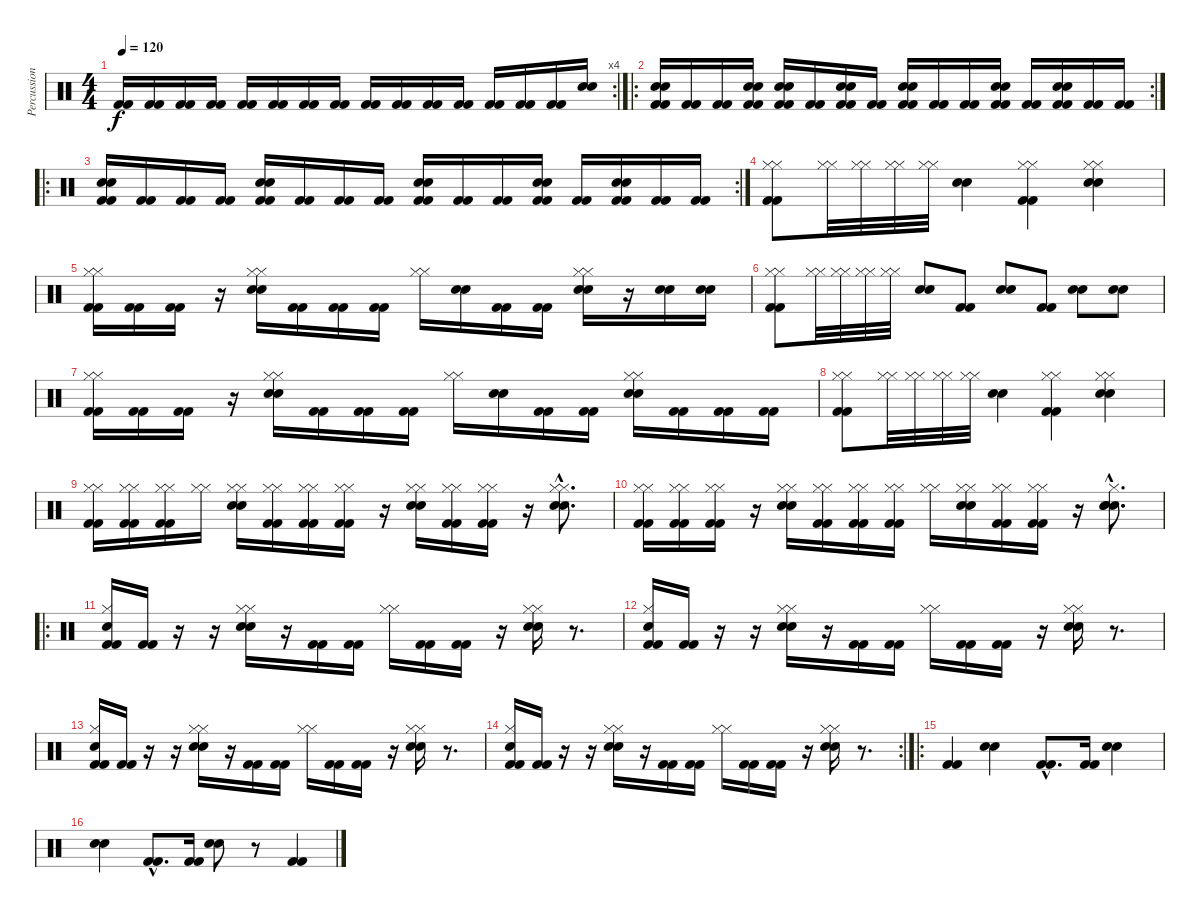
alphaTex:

\track ("Percussions" "Percussion") {instrument percussion}
\staff {score}
\articulation defaults
\rc 4
\ts (4 4)
\tempo 120
\clef neutral
\ks c
("Kick (hit) 2" "Kick (hit) 2").16{dy f} ("Kick (hit) 2" "Kick (hit) 2").16 ("Kick (hit) 2" "Kick (hit) 2").16 ("Kick (hit) 2" "Kick (hit) 2").16 ("Kick (hit) 2" "Kick (hit) 2").16 ("Kick (hit) 2" "Kick (hit) 2").16 ("Kick (hit) 2" "Kick (hit) 2").16 ("Kick (hit) 2" "Kick (hit) 2").16 ("Kick (hit) 2" "Kick (hit) 2").16 ("Kick (hit) 2" "Kick (hit) 2").16 ("Kick (hit) 2" "Kick (hit) 2").16 ("Kick (hit) 2" "Kick (hit) 2").16 ("Kick (hit) 2" "Kick (hit) 2").16 ("Kick (hit) 2" "Kick (hit) 2").16 ("Kick (hit) 2" "Kick (hit) 2").16 ("Electric Snare (hit)" "Electric Snare (hit)").16 |
\ro
\rc 2
("Kick (hit) 2" "Kick (hit) 2" "Electric Snare (hit)" "Electric Snare (hit)").16 ("Kick (hit) 2" "Kick (hit) 2").16 ("Kick (hit) 2" "Kick (hit) 2").16 ("Kick (hit) 2" "Kick (hit) 2" "Electric Snare (hit)" "Electric Snare (hit)").16 ("Kick (hit) 2" "Kick (hit) 2" "Electric Snare (hit)" "Electric Snare (hit)").16 ("Kick (hit) 2" "Kick (hit) 2").16 ("Kick (hit) 2" "Kick (hit) 2" "Electric Snare (hit)" "Electric Snare (hit)").16 ("Kick (hit) 2" "Kick (hit) 2").16 ("Kick (hit) 2" "Kick (hit) 2" "Electric Snare (hit)" "Electric Snare (hit)").16 ("Kick (hit) 2" "Kick (hit) 2").16 ("Kick (hit) 2" "Kick (hit) 2").16 ("Kick (hit) 2" "Kick (hit) 2" "Electric Snare (hit)" "Electric Snare (hit)").16 ("Kick (hit) 2" "Kick (hit) 2").16 ("Kick (hit) 2" "Kick (hit) 2" "Electric Snare (hit)" "Electric Snare (hit)").16 ("Kick (hit) 2" "Kick (hit) 2").16 ("Kick (hit) 2" "Kick (hit) 2").16 |
\ro
\rc 2
("Kick (hit) 2" "Kick (hit) 2" "Electric Snare (hit)" "Electric Snare (hit)").16 ("Kick (hit) 2" "Kick (hit) 2").16 ("Kick (hit) 2" "Kick (hit) 2").16 ("Kick (hit) 2" "Kick (hit) 2").16 ("Kick (hit) 2" "Kick (hit) 2" "Electric Snare (hit)" "Electric Snare (hit)").16 ("Kick (hit) 2" "Kick (hit) 2").16 ("Kick (hit) 2" "Kick (hit) 2").16 ("Kick (hit) 2" "Kick (hit) 2").16 ("Kick (hit) 2" "Kick (hit) 2" "Electric Snare (hit)" "Electric Snare (hit)").16 ("Kick (hit) 2" "Kick (hit) 2").16 ("Kick (hit) 2" "Kick (hit) 2").16 ("Kick (hit) 2" "Kick (hit) 2" "Electric Snare (hit)" "Electric Snare (hit)").16 ("Kick (hit) 2" "Kick (hit) 2").16 ("Kick (hit) 2" "Kick (hit) 2" "Electric Snare (hit)" "Electric Snare (hit)").16 ("Kick (hit) 2" "Kick (hit) 2").16 ("Kick (hit) 2" "Kick (hit) 2").16 |
("Kick (hit) 2" "Kick (hit) 2" "Hi-Hat (closed)" "Hi-Hat (closed)").8 ("Hi-Hat (closed)" "Hi-Hat (closed)").32 ("Hi-Hat (closed)" "Hi-Hat (closed)").32 ("Hi-Hat (closed)" "Hi-Hat (closed)").32 ("Hi-Hat (closed)" "Hi-Hat (closed)").32 ("Electric Snare (hit)" "Electric Snare (hit)").4 ("Kick (hit) 2" "Kick (hit) 2" "Hi-Hat (closed)" "Hi-Hat (closed)").4 ("Electric Snare (hit)" "Electric Snare (hit)" "Hi-Hat (closed)" "Hi-Hat (closed)").4 |
("Kick (hit) 2" "Kick (hit) 2" "Hi-Hat (closed)" "Hi-Hat (closed)").16 ("Kick (hit) 2" "Kick (hit) 2").16 ("Kick (hit) 2" "Kick (hit) 2").16 r.16 ("Electric Snare (hit)" "Electric Snare (hit)" "Hi-Hat (closed)" "Hi-Hat (closed)").16 ("Kick (hit) 2" "Kick (hit) 2").16 ("Kick (hit) 2" "Kick (hit) 2").16 ("Kick (hit) 2" "Kick (hit) 2").16 ("Hi-Hat (closed)" "Hi-Hat (closed)").16 ("Electric Snare (hit)" "Electric Snare (hit)").16 ("Kick (hit) 2" "Kick (hit) 2").16 ("Kick (hit) 2" "Kick (hit) 2").16 ("Electric Snare (hit)" "Electric Snare (hit)" "Hi-Hat (closed)" "Hi-Hat (closed)").16 r.16 ("Electric Snare (hit)" "Electric Snare (hit)").16 ("Electric Snare (hit)" "Electric Snare (hit)").16 |
("Kick (hit) 2" "Kick (hit) 2" "Hi-Hat (closed)" "Hi-Hat (closed)").8 ("Hi-Hat (closed)" "Hi-Hat (closed)").32 ("Hi-Hat (closed)" "Hi-Hat (closed)").32 ("Hi-Hat (closed)" "Hi-Hat (closed)").32 ("Hi-Hat (closed)" "Hi-Hat (closed)").32 ("Electric Snare (hit)" "Electric Snare (hit)").8 ("Kick (hit) 2" "Kick (hit) 2").8 ("Electric Snare (hit)" "Electric Snare (hit)").8 ("Kick (hit) 2" "Kick (hit) 2").8 ("Electric Snare (hit)" "Electric Snare (hit)").8 ("Electric Snare (hit)" "Electric Snare (hit)").8 |
("Kick (hit) 2" "Kick (hit) 2" "Hi-Hat (closed)" "Hi-Hat (closed)").16 ("Kick (hit) 2" "Kick (hit) 2").16 ("Kick (hit) 2" "Kick (hit) 2").16 r.16 ("Electric Snare (hit)" "Electric Snare (hit)" "Hi-Hat (closed)" "Hi-Hat (closed)").16 ("Kick (hit) 2" "Kick (hit) 2").16 ("Kick (hit) 2" "Kick (hit) 2").16 ("Kick (hit) 2" "Kick (hit) 2").16 ("Hi-Hat (closed)" "Hi-Hat (closed)").16 ("Electric Snare (hit)" "Electric Snare (hit)").16 ("Kick (hit) 2" "Kick (hit) 2").16 ("Kick (hit) 2" "Kick (hit) 2").16 ("Electric Snare (hit)" "Electric Snare (hit)" "Hi-Hat (closed)" "Hi-Hat (closed)").16 ("Kick (hit) 2" "Kick (hit) 2").16 ("Kick (hit) 2" "Kick (hit) 2").16 ("Kick (hit) 2" "Kick (hit) 2").16 |
("Kick (hit) 2" "Kick (hit) 2" "Hi-Hat (closed)" "Hi-Hat (closed)").8 ("Hi-Hat (closed)" "Hi-Hat (closed)").32 ("Hi-Hat (closed)" "Hi-Hat (closed)").32 ("Hi-Hat (closed)" "Hi-Hat (closed)").32 ("Hi-Hat (closed)" "Hi-Hat (closed)").32 ("Electric Snare (hit)" "Electric Snare (hit)").4 ("Kick (hit) 2" "Kick (hit) 2" "Hi-Hat (closed)" "Hi-Hat (closed)").4 ("Electric Snare (hit)" "Electric Snare (hit)" "Hi-Hat (closed)" "Hi-Hat (closed)").4 |
("Kick (hit) 2" "Kick (hit) 2" "Hi-Hat (closed)" "Hi-Hat (closed)").16 ("Kick (hit) 2" "Kick (hit) 2" "Hi-Hat (closed)" "Hi-Hat (closed)").16 ("Kick (hit) 2" "Kick (hit) 2" "Hi-Hat (closed)" "Hi-Hat (closed)").16 ("Hi-Hat (closed)" "Hi-Hat (closed)").16 ("Electric Snare (hit)" "Electric Snare (hit)" "Hi-Hat (closed)" "Hi-Hat (closed)").16 ("Kick (hit) 2" "Kick (hit) 2" "Hi-Hat (closed)" "Hi-Hat (closed)").16 ("Kick (hit) 2" "Kick (hit) 2" "Hi-Hat (closed)" "Hi-Hat (closed)").16 ("Kick (hit) 2" "Kick (hit) 2" "Hi-Hat (closed)" "Hi-Hat (closed)").16 r.16 ("Electric Snare (hit)" "Electric Snare (hit)" "Hi-Hat (closed)" "Hi-Hat (closed)").16 ("Kick (hit) 2" "Kick (hit) 2" "Hi-Hat (closed)" "Hi-Hat (closed)").16 ("Kick (hit) 2" "Kick (hit) 2" "Hi-Hat (closed)" "Hi-Hat (closed)").16 r.16 ("Electric Snare (hit)"{hac} "Electric Snare (hit)"{hac} "Hi-Hat (closed)"{hac} "Hi-Hat (closed)"{hac}).8{d} |
("Kick (hit) 2" "Kick (hit) 2" "Hi-Hat (closed)" "Hi-Hat (closed)").16 ("Kick (hit) 2" "Kick (hit) 2" "Hi-Hat (closed)" "Hi-Hat (closed)").16 ("Kick (hit) 2" "Kick (hit) 2" "Hi-Hat (closed)" "Hi-Hat (closed)").16 r.16 ("Electric Snare (hit)" "Electric Snare (hit)" "Hi-Hat (closed)" "Hi-Hat (closed)").16 ("Kick (hit) 2" "Kick (hit) 2" "Hi-Hat (closed)" "Hi-Hat (closed)").16 ("Kick (hit) 2" "Kick (hit) 2" "Hi-Hat (closed)" "Hi-Hat (closed)").16 ("Kick (hit) 2" "Kick (hit) 2" "Hi-Hat (closed)" "Hi-Hat (closed)").16 ("Hi-Hat (closed)" "Hi-Hat (closed)").16 ("Electric Snare (hit)" "Electric Snare (hit)" "Hi-Hat (closed)" "Hi-Hat (closed)").16 ("Kick (hit) 2" "Kick (hit) 2" "Hi-Hat (closed)" "Hi-Hat (closed)").16 ("Kick (hit) 2" "Kick (hit) 2" "Hi-Hat (closed)" "Hi-Hat (closed)").16 r.16 ("Electric Snare (hit)"{hac} "Electric Snare (hit)"{hac} "Hi-Hat (closed)"{hac} "Snare (hit)"{hac}).8{d} |
\ro
("Kick (hit) 2" "Kick (hit) 2" "Snare (hit)" "Hi-Hat (closed)").16 ("Kick (hit) 2" "Kick (hit) 2").16 r.16 r.16 ("Electric Snare (hit)" "Electric Snare (hit)" "Hi-Hat (closed)" "Hi-Hat (closed)").16 r.16 ("Kick (hit) 2" "Kick (hit) 2").16 ("Kick (hit) 2" "Kick (hit) 2").16 ("Hi-Hat (closed)" "Hi-Hat (closed)").16 ("Kick (hit) 2" "Kick (hit) 2").16 ("Kick (hit) 2" "Kick (hit) 2").16 r.16 ("Electric Snare (hit)" "Electric Snare (hit)" "Hi-Hat (closed)" "Hi-Hat (closed)").16 r.8{d} |
("Kick (hit) 2" "Kick (hit) 2" "Snare (hit)" "Hi-Hat (closed)").16 ("Kick (hit) 2" "Kick (hit) 2").16 r.16 r.16 ("Electric Snare (hit)" "Electric Snare (hit)" "Hi-Hat (closed)" "Hi-Hat (closed)").16 r.16 ("Kick (hit) 2" "Kick (hit) 2").16 ("Kick (hit) 2" "Kick (hit) 2").16 ("Hi-Hat (closed)" "Hi-Hat (closed)").16 ("Kick (hit) 2" "Kick (hit) 2").16 ("Kick (hit) 2" "Kick (hit) 2").16 r.16 ("Electric Snare (hit)" "Electric Snare (hit)" "Hi-Hat (closed)" "Hi-Hat (closed)").16 r.8{d} |
("Kick (hit) 2" "Kick (hit) 2" "Snare (hit)" "Hi-Hat (closed)").16 ("Kick (hit) 2" "Kick (hit) 2").16 r.16 r.16 ("Electric Snare (hit)" "Electric Snare (hit)" "Hi-Hat (closed)" "Hi-Hat (closed)").16 r.16 ("Kick (hit) 2" "Kick (hit) 2").16 ("Kick (hit) 2" "Kick (hit) 2").16 ("Hi-Hat (closed)" "Hi-Hat (closed)").16 ("Kick (hit) 2" "Kick (hit) 2").16 ("Kick (hit) 2" "Kick (hit) 2").16 r.16 ("Electric Snare (hit)" "Electric Snare (hit)" "Hi-Hat (closed)" "Hi-Hat (closed)").16 r.8{d} |
\rc 2
("Kick (hit) 2" "Kick (hit) 2" "Snare (hit)" "Hi-Hat (closed)").16 ("Kick (hit) 2" "Kick (hit) 2").16 r.16 r.16 ("Electric Snare (hit)" "Electric Snare (hit)" "Hi-Hat (closed)" "Hi-Hat (closed)").16 r.16 ("Kick (hit) 2" "Kick (hit) 2").16 ("Kick (hit) 2" "Kick (hit) 2").16 ("Hi-Hat (closed)" "Hi-Hat (closed)").16 ("Kick (hit) 2" "Kick (hit) 2").16 ("Kick (hit) 2" "Kick (hit) 2").16 r.16 ("Electric Snare (hit)" "Electric Snare (hit)" "Hi-Hat (closed)" "Hi-Hat (closed)").16 r.8{d} |
\ro
("Kick (hit) 2" "Kick (hit) 2").4 ("Electric Snare (hit)" "Electric Snare (hit)").4 ("Kick (hit) 2"{hac} "Kick (hit) 2"{hac}).8{d} ("Kick (hit) 2" "Kick (hit) 2").16 ("Electric Snare (hit)" "Electric Snare (hit)").4 |
("Electric Snare (hit)" "Electric Snare (hit)").4 ("Kick (hit) 2"{hac} "Kick (hit) 2"{hac}).8{d} ("Kick (hit) 2" "Kick (hit) 2").16 ("Electric Snare (hit)" "Electric Snare (hit)").8 r.8 ("Kick (hit) 2" "Kick (hit) 2").4
